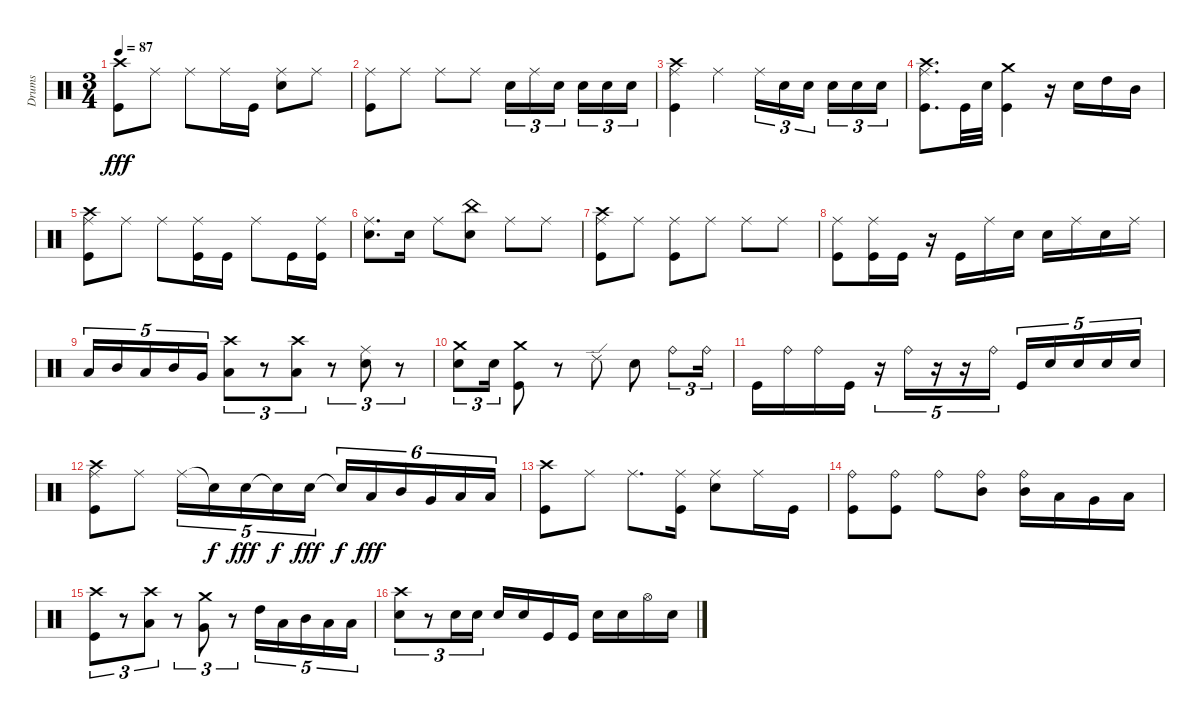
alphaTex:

\track ("Drums" "Drums") {instrument percussion}
\staff {score}
\articulation defaults
\ts (3 4)
\tempo 87
\clef neutral
\ks c
("Crash high (hit)" "Kick (hit)").8{dy fff} "Ride (middle)".8 "Ride (middle)".8 "Ride (middle)".16 "Kick (hit)".16 ("Ride (middle)" "Snare (hit) 2").8 "Ride (middle)".8 |
("Ride (middle)" "Kick (hit)").8 "Ride (middle)".8 "Ride (middle)".8 "Ride (middle)".8 "Snare (hit) 2".16{tu (3 2)} "Ride (middle)".16{tu (3 2)} "Snare (hit) 2".16{tu (3 2)} "Snare (hit) 2".16{tu (3 2)} "Snare (hit) 2".16{tu (3 2)} "Snare (hit) 2".16{tu (3 2)} |
("Ride (middle)" "Crash high (hit)" "Kick (hit)").4 "Ride (middle)".4 "Ride (middle)".16{tu (3 2)} "Snare (hit) 2".16{tu (3 2)} "Snare (hit) 2".16{tu (3 2)} "Snare (hit) 2".16{tu (3 2)} "Snare (hit) 2".16{tu (3 2)} "Snare (hit) 2".16{tu (3 2)} |
("Ride (middle)" "Crash high (hit)" "Kick (hit)").8{d} "Kick (hit)".32 "Snare (hit) 2".32 ("Crash medium (hit)" "Kick (hit)").4 r.16 "Snare (hit) 2".16 "High Tom (hit)".16 "Mid Tom (hit)".16 |
("Ride (middle)" "Crash high (hit)" "Kick (hit)").8 "Ride (middle)".8 "Ride (middle)".8 ("Ride (middle)" "Kick (hit)").16 "Kick (hit)".16 "Ride (middle)".8 "Kick (hit)".16 ("Ride (middle)" "Kick (hit)").16 |
("Ride (middle)" "Snare (hit) 2").8{d} "Snare (hit) 2".16 "Ride (middle)".8 ("China (hit)" "Snare (hit) 2").8 "Ride (middle)".8 "Ride (middle)".8 |
("Ride (middle)" "Crash high (hit)" "Kick (hit)").8 "Ride (middle)".8 ("Ride (middle)" "Kick (hit)").8 "Ride (middle)".8 "Ride (middle)".8 "Ride (middle)".8 |
("Ride (middle)" "Kick (hit)").8 ("Ride (middle)" "Kick (hit)").16 "Kick (hit)".16 r.16 "Kick (hit)".16 "Ride (middle)".16 "Snare (hit) 2".16 "Snare (hit) 2".16 "Ride (middle)".16 "Snare (hit) 2".16 "Ride (middle)".16 |
"Low Tom (hit)".16{tu (5 4)} "Mid Tom (hit)".16{tu (5 4)} "Low Tom (hit)".16{tu (5 4)} "Mid Tom (hit)".16{tu (5 4)} "Very Low Tom (hit)".16{tu (5 4)} ("Crash high (hit)" "Low Floor Tom (hit)").8{tu (3 2)} r.8{tu (3 2)} ("Crash high (hit)" "Low Floor Tom (hit)").8{tu (3 2)} r.8{tu (3 2)} ("Ride (middle)" "Snare (hit) 2").8{tu (3 2)} r.8{tu (3 2)} |
("Crash medium (hit)" "Snare (hit) 2").8{tu (3 2)} "Snare (hit) 2".16{tu (3 2)} ("Crash medium (hit)" "Kick (hit)").8 r.8 "Ride (edge) 2".8 "Snare (hit) 2".8 "Ride (bell)".8{tu (3 2)} "Ride (bell)".16{tu (3 2)} |
"Kick (hit)".16 "Ride (bell)".16 "Ride (bell)".16 "Kick (hit)".16 r.16{tu (5 4)} "Ride (bell)".16{tu (5 4)} r.16{tu (5 4)} r.16{tu (5 4)} "Ride (bell)".16{tu (5 4)} "Kick (hit)".16{tu (5 4)} "Snare (hit) 2".16{tu (5 4)} "Snare (hit) 2".16{tu (5 4)} "Snare (hit) 2".16{tu (5 4)} "Snare (hit) 2".16{tu (5 4)} |
("Ride (middle)" "Crash high (hit)" "Kick (hit)").8 "Ride (middle)".8 "Ride (middle)".16{tu (5 4)} "Snare (hit)"{t}.16{tu (5 4) dy f} "Snare (hit) 2".16{tu (5 4) dy fff} "Snare (hit)"{t}.16{tu (5 4) dy f} "Snare (hit) 2".16{tu (5 4) dy fff} "Snare (hit)"{t}.16{tu (6 4) dy f} "Low Floor Tom (hit)".16{tu (6 4) dy fff} "Mid Tom (hit)".16{tu (6 4)} "Very Low Tom (hit)".16{tu (6 4)} "Low Tom (hit)".16{tu (6 4)} "Low Floor Tom (hit)".16{tu (6 4)} |
("Crash high (hit)" "Kick (hit)").8 "Ride (middle)".8 "Ride (middle)".8{d} ("Ride (middle)" "Kick (hit)").16 ("Ride (middle)" "Snare (hit) 2").8 "Ride (middle)".16 "Kick (hit)".16 |
("Ride (bell)" "Kick (hit)").8 ("Ride (bell)" "Kick (hit)").8 "Ride (bell)".8 ("Ride (bell)" "Mid Tom (hit)").8 ("Ride (bell)" "Mid Tom (hit)").16 "Low Tom (hit)".16 "Very Low Tom (hit)".16 "Low Floor Tom (hit)".16 |
("Crash high (hit)" "Kick (hit)").8{tu (3 2)} r.8{tu (3 2)} ("Crash high (hit)" "Low Floor Tom (hit)").8{tu (3 2)} r.8{tu (3 2)} ("Crash medium (hit)" "Very Low Tom (hit)").8{tu (3 2)} r.8{tu (3 2)} "High Tom (hit)".16{tu (5 4)} "Low Tom (hit)".16{tu (5 4)} "Mid Tom (hit)".16{tu (5 4)} "Low Floor Tom (hit)".16{tu (5 4)} "Low Tom (hit)".16{tu (5 4)} |
("Crash high (hit)" "Snare (hit) 2").8{tu (3 2)} r.8{tu (3 2)} "Snare (hit) 2".16{tu (3 2)} "Snare (hit) 2".16{tu (3 2)} "Snare (hit) 2".16 "Snare (hit) 2".16 "Kick (hit)".16 "Kick (hit)".16 "Snare (hit) 2".16 "Snare (hit) 2".16 "Hi-Hat (open)".16 "Snare (hit) 2".16
